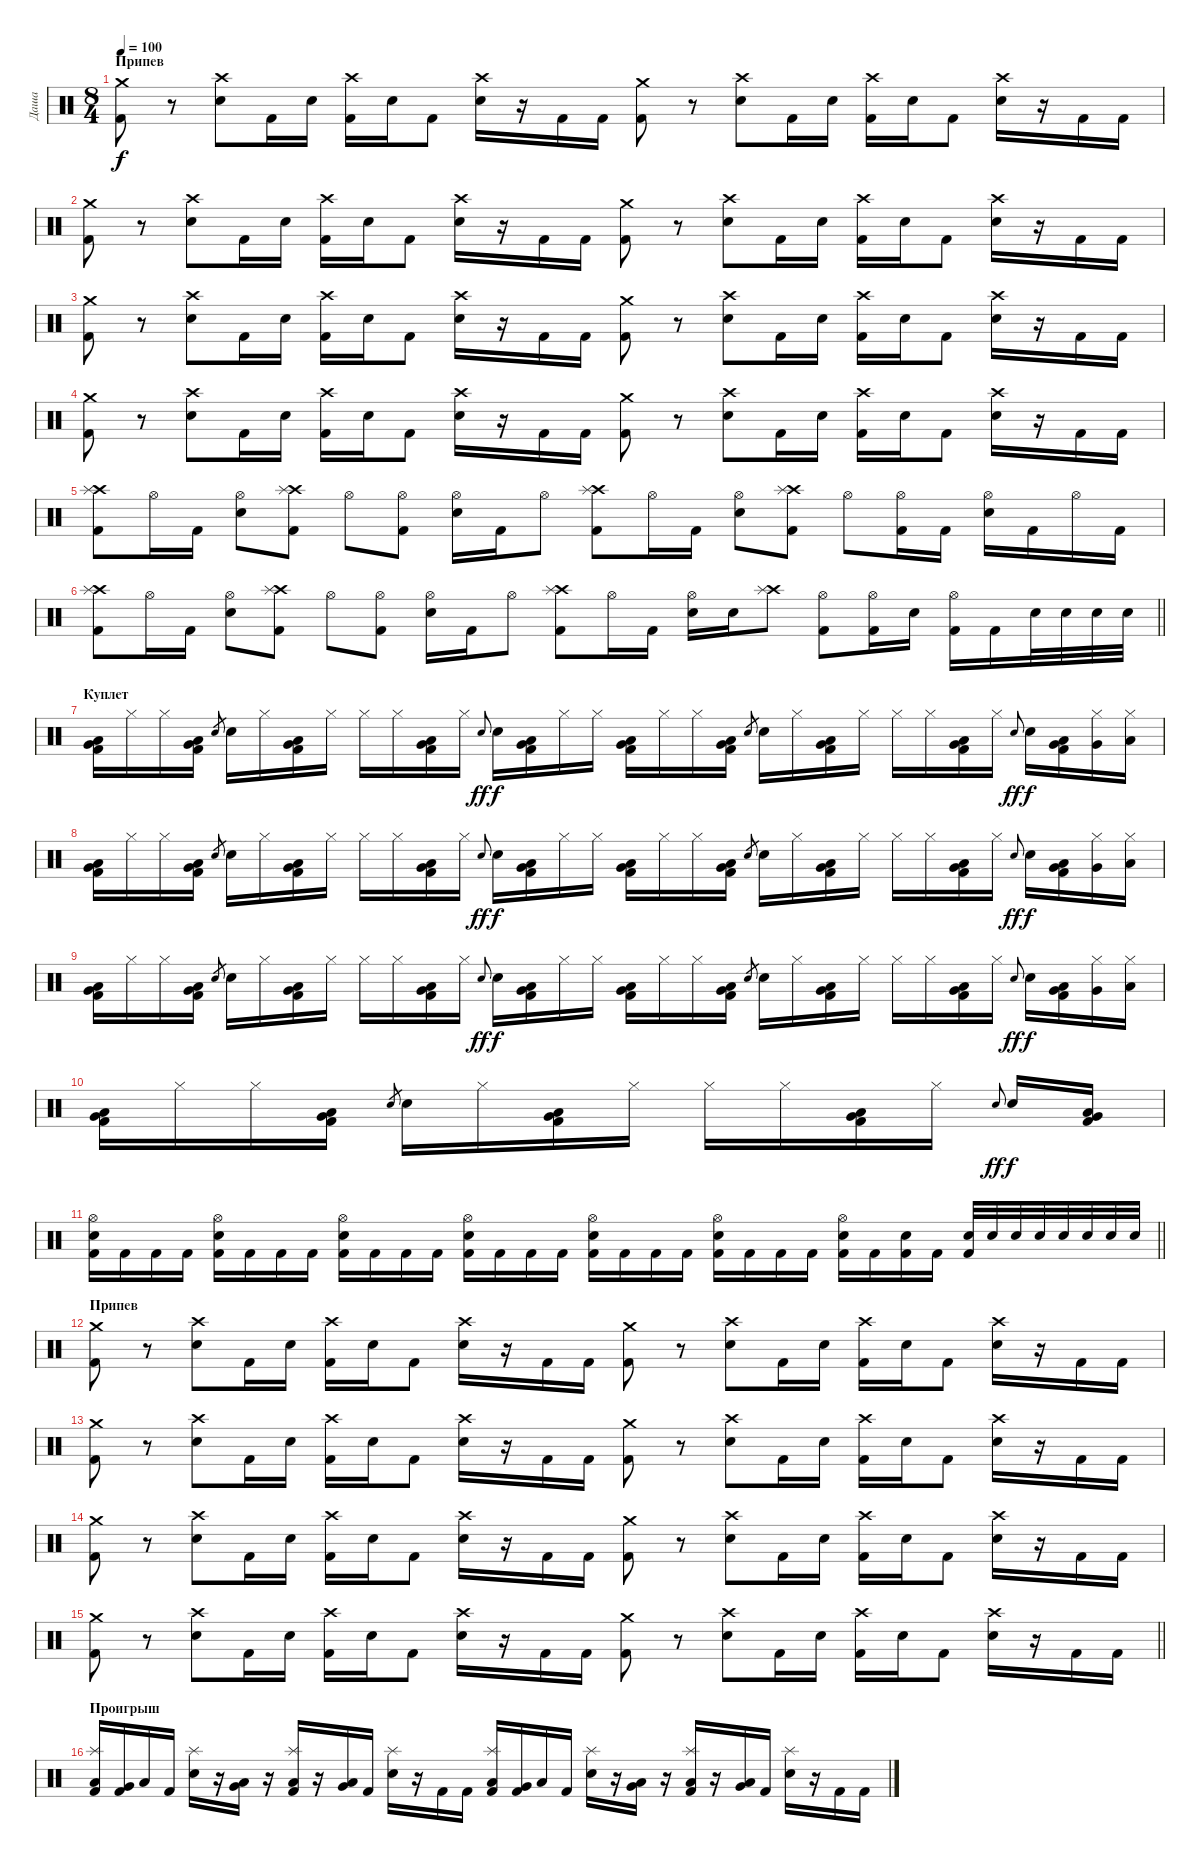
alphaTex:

\track ("Даша" "Даша") {instrument percussion}
\staff {score}
\articulation defaults
\ts (8 4)
\section ("" "Припев")
\tempo 100
\clef neutral
\ks c
("Crash medium (hit)" "Kick (hit) 2").8{dy f} r.8 ("Crash high (hit)" "Electric Snare (hit)").8 "Kick (hit) 2".16 "Electric Snare (hit)".16 ("Crash high (hit)" "Kick (hit) 2").16 "Electric Snare (hit)".16 "Kick (hit) 2".8 ("Crash high (hit)" "Electric Snare (hit)").16 r.16 "Kick (hit) 2".16 "Kick (hit) 2".16 ("Crash medium (hit)" "Kick (hit) 2").8 r.8 ("Crash high (hit)" "Electric Snare (hit)").8 "Kick (hit) 2".16 "Electric Snare (hit)".16 ("Crash high (hit)" "Kick (hit) 2").16 "Electric Snare (hit)".16 "Kick (hit) 2".8 ("Crash high (hit)" "Electric Snare (hit)").16 r.16 "Kick (hit) 2".16 "Kick (hit) 2".16 |
("Crash medium (hit)" "Kick (hit) 2").8 r.8 ("Crash high (hit)" "Electric Snare (hit)").8 "Kick (hit) 2".16 "Electric Snare (hit)".16 ("Crash high (hit)" "Kick (hit) 2").16 "Electric Snare (hit)".16 "Kick (hit) 2".8 ("Crash high (hit)" "Electric Snare (hit)").16 r.16 "Kick (hit) 2".16 "Kick (hit) 2".16 ("Crash medium (hit)" "Kick (hit) 2").8 r.8 ("Crash high (hit)" "Electric Snare (hit)").8 "Kick (hit) 2".16 "Electric Snare (hit)".16 ("Crash high (hit)" "Kick (hit) 2").16 "Electric Snare (hit)".16 "Kick (hit) 2".8 ("Crash high (hit)" "Electric Snare (hit)").16 r.16 "Kick (hit) 2".16 "Kick (hit) 2".16 |
("Crash medium (hit)" "Kick (hit) 2").8 r.8 ("Crash high (hit)" "Electric Snare (hit)").8 "Kick (hit) 2".16 "Electric Snare (hit)".16 ("Crash high (hit)" "Kick (hit) 2").16 "Electric Snare (hit)".16 "Kick (hit) 2".8 ("Crash high (hit)" "Electric Snare (hit)").16 r.16 "Kick (hit) 2".16 "Kick (hit) 2".16 ("Crash medium (hit)" "Kick (hit) 2").8 r.8 ("Crash high (hit)" "Electric Snare (hit)").8 "Kick (hit) 2".16 "Electric Snare (hit)".16 ("Crash high (hit)" "Kick (hit) 2").16 "Electric Snare (hit)".16 "Kick (hit) 2".8 ("Crash high (hit)" "Electric Snare (hit)").16 r.16 "Kick (hit) 2".16 "Kick (hit) 2".16 |
("Crash medium (hit)" "Kick (hit) 2").8 r.8 ("Crash high (hit)" "Electric Snare (hit)").8 "Kick (hit) 2".16 "Electric Snare (hit)".16 ("Crash high (hit)" "Kick (hit) 2").16 "Electric Snare (hit)".16 "Kick (hit) 2".8 ("Crash high (hit)" "Electric Snare (hit)").16 r.16 "Kick (hit) 2".16 "Kick (hit) 2".16 ("Crash medium (hit)" "Kick (hit) 2").8 r.8 ("Crash high (hit)" "Electric Snare (hit)").8 "Kick (hit) 2".16 "Electric Snare (hit)".16 ("Crash high (hit)" "Kick (hit) 2").16 "Electric Snare (hit)".16 "Kick (hit) 2".8 ("Crash high (hit)" "Electric Snare (hit)").16 r.16 "Kick (hit) 2".16 "Kick (hit) 2".16 |
("Crash high (hit)" "Splash (hit)" "Kick (hit) 2").8 "Hi-Hat (open)".16 "Kick (hit) 2".16 ("Hi-Hat (open)" "Electric Snare (hit)").8 ("Crash high (hit)" "Splash (hit)" "Kick (hit) 2").8 "Hi-Hat (open)".8 ("Hi-Hat (open)" "Kick (hit) 2").8 ("Hi-Hat (open)" "Electric Snare (hit)").16 "Kick (hit) 2".16 "Hi-Hat (open)".8 ("Crash high (hit)" "Splash (hit)" "Kick (hit) 2").8 "Hi-Hat (open)".16 "Kick (hit) 2".16 ("Hi-Hat (open)" "Electric Snare (hit)").8 ("Crash high (hit)" "Splash (hit)" "Kick (hit) 2").8 "Hi-Hat (open)".8 ("Hi-Hat (open)" "Kick (hit) 2").16 "Kick (hit) 2".16 ("Hi-Hat (open)" "Electric Snare (hit)").16 "Kick (hit) 2".16 "Hi-Hat (open)".16 "Kick (hit) 2".16 |
\barLineRight lightlight
("Crash high (hit)" "Splash (hit)" "Kick (hit) 2").8 "Hi-Hat (open)".16 "Kick (hit) 2".16 ("Hi-Hat (open)" "Electric Snare (hit)").8 ("Crash high (hit)" "Splash (hit)" "Kick (hit) 2").8 "Hi-Hat (open)".8 ("Hi-Hat (open)" "Kick (hit) 2").8 ("Hi-Hat (open)" "Electric Snare (hit)").16 "Kick (hit) 2".16 "Hi-Hat (open)".8 ("Crash high (hit)" "Splash (hit)" "Kick (hit) 2").8 "Hi-Hat (open)".16 "Kick (hit) 2".16 ("Hi-Hat (open)" "Electric Snare (hit)").16 "Electric Snare (hit)".16 ("Crash high (hit)" "Splash (hit)").8 ("Hi-Hat (open)" "Kick (hit) 2").8 ("Hi-Hat (open)" "Kick (hit) 2").16 "Electric Snare (hit)".16 ("Hi-Hat (open)" "Kick (hit) 2").16 "Kick (hit) 2".16 "Electric Snare (hit)".32 "Electric Snare (hit)".32 "Electric Snare (hit)".32 "Electric Snare (hit)".32 |
\section ("" "Куплет")
("Low Floor Tom (hit)" "Very Low Tom (hit)" "Kick (hit) 2").16 "Hi-Hat (closed)".16 "Hi-Hat (closed)".16 ("Low Floor Tom (hit)" "Very Low Tom (hit)" "Kick (hit) 2").16 "Electric Snare (hit)".8{gr} "Electric Snare (hit)".16 "Hi-Hat (closed)".16 ("Low Floor Tom (hit)" "Very Low Tom (hit)" "Kick (hit) 2").16 "Hi-Hat (closed)".16 "Hi-Hat (closed)".16 "Hi-Hat (closed)".16 ("Low Floor Tom (hit)" "Very Low Tom (hit)" "Kick (hit) 2").16 "Hi-Hat (closed)".16 "Electric Snare (hit)".8{gr onbeat dy ff} "Electric Snare (hit)".16{dy f} ("Low Floor Tom (hit)" "Very Low Tom (hit)" "Kick (hit) 2").16 "Hi-Hat (closed)".16 "Hi-Hat (closed)".16 ("Low Floor Tom (hit)" "Very Low Tom (hit)" "Kick (hit) 2").16 "Hi-Hat (closed)".16 "Hi-Hat (closed)".16 ("Low Floor Tom (hit)" "Very Low Tom (hit)" "Kick (hit) 2").16 "Electric Snare (hit)".8{gr} "Electric Snare (hit)".16 "Hi-Hat (closed)".16 ("Low Floor Tom (hit)" "Very Low Tom (hit)" "Kick (hit) 2").16 "Hi-Hat (closed)".16 "Hi-Hat (closed)".16 "Hi-Hat (closed)".16 ("Low Floor Tom (hit)" "Very Low Tom (hit)" "Kick (hit) 2").16 "Hi-Hat (closed)".16 "Electric Snare (hit)".8{gr onbeat dy ff} "Electric Snare (hit)".16{dy f} ("Low Tom (hit)" "Very Low Tom (hit)" "Kick (hit) 2").16 ("Hi-Hat (closed)" "Very Low Tom (hit)").16 ("Hi-Hat (closed)" "Low Floor Tom (hit)").16 |
("Low Floor Tom (hit)" "Very Low Tom (hit)" "Kick (hit) 2").16 "Hi-Hat (closed)".16 "Hi-Hat (closed)".16 ("Low Floor Tom (hit)" "Very Low Tom (hit)" "Kick (hit) 2").16 "Electric Snare (hit)".8{gr} "Electric Snare (hit)".16 "Hi-Hat (closed)".16 ("Low Floor Tom (hit)" "Very Low Tom (hit)" "Kick (hit) 2").16 "Hi-Hat (closed)".16 "Hi-Hat (closed)".16 "Hi-Hat (closed)".16 ("Low Floor Tom (hit)" "Very Low Tom (hit)" "Kick (hit) 2").16 "Hi-Hat (closed)".16 "Electric Snare (hit)".8{gr onbeat dy ff} "Electric Snare (hit)".16{dy f} ("Low Floor Tom (hit)" "Very Low Tom (hit)" "Kick (hit) 2").16 "Hi-Hat (closed)".16 "Hi-Hat (closed)".16 ("Low Floor Tom (hit)" "Very Low Tom (hit)" "Kick (hit) 2").16 "Hi-Hat (closed)".16 "Hi-Hat (closed)".16 ("Low Floor Tom (hit)" "Very Low Tom (hit)" "Kick (hit) 2").16 "Electric Snare (hit)".8{gr} "Electric Snare (hit)".16 "Hi-Hat (closed)".16 ("Low Floor Tom (hit)" "Very Low Tom (hit)" "Kick (hit) 2").16 "Hi-Hat (closed)".16 "Hi-Hat (closed)".16 "Hi-Hat (closed)".16 ("Low Floor Tom (hit)" "Very Low Tom (hit)" "Kick (hit) 2").16 "Hi-Hat (closed)".16 "Electric Snare (hit)".8{gr onbeat dy ff} "Electric Snare (hit)".16{dy f} ("Low Tom (hit)" "Very Low Tom (hit)" "Kick (hit) 2").16 ("Hi-Hat (closed)" "Very Low Tom (hit)").16 ("Hi-Hat (closed)" "Low Floor Tom (hit)").16 |
("Low Floor Tom (hit)" "Very Low Tom (hit)" "Kick (hit) 2").16 "Hi-Hat (closed)".16 "Hi-Hat (closed)".16 ("Low Floor Tom (hit)" "Very Low Tom (hit)" "Kick (hit) 2").16 "Electric Snare (hit)".8{gr} "Electric Snare (hit)".16 "Hi-Hat (closed)".16 ("Low Floor Tom (hit)" "Very Low Tom (hit)" "Kick (hit) 2").16 "Hi-Hat (closed)".16 "Hi-Hat (closed)".16 "Hi-Hat (closed)".16 ("Low Floor Tom (hit)" "Very Low Tom (hit)" "Kick (hit) 2").16 "Hi-Hat (closed)".16 "Electric Snare (hit)".8{gr onbeat dy ff} "Electric Snare (hit)".16{dy f} ("Low Floor Tom (hit)" "Very Low Tom (hit)" "Kick (hit) 2").16 "Hi-Hat (closed)".16 "Hi-Hat (closed)".16 ("Low Floor Tom (hit)" "Very Low Tom (hit)" "Kick (hit) 2").16 "Hi-Hat (closed)".16 "Hi-Hat (closed)".16 ("Low Floor Tom (hit)" "Very Low Tom (hit)" "Kick (hit) 2").16 "Electric Snare (hit)".8{gr} "Electric Snare (hit)".16 "Hi-Hat (closed)".16 ("Low Floor Tom (hit)" "Very Low Tom (hit)" "Kick (hit) 2").16 "Hi-Hat (closed)".16 "Hi-Hat (closed)".16 "Hi-Hat (closed)".16 ("Low Floor Tom (hit)" "Very Low Tom (hit)" "Kick (hit) 2").16 "Hi-Hat (closed)".16 "Electric Snare (hit)".8{gr onbeat dy ff} "Electric Snare (hit)".16{dy f} ("Low Tom (hit)" "Very Low Tom (hit)" "Kick (hit) 2").16 ("Hi-Hat (closed)" "Very Low Tom (hit)").16 ("Hi-Hat (closed)" "Low Floor Tom (hit)").16 |
("Low Floor Tom (hit)" "Very Low Tom (hit)" "Kick (hit) 2").16 "Hi-Hat (closed)".16 "Hi-Hat (closed)".16 ("Low Floor Tom (hit)" "Very Low Tom (hit)" "Kick (hit) 2").16 "Electric Snare (hit)".8{gr} "Electric Snare (hit)".16 "Hi-Hat (closed)".16 ("Low Floor Tom (hit)" "Very Low Tom (hit)" "Kick (hit) 2").16 "Hi-Hat (closed)".16 "Hi-Hat (closed)".16 "Hi-Hat (closed)".16 ("Low Floor Tom (hit)" "Very Low Tom (hit)" "Kick (hit) 2").16 "Hi-Hat (closed)".16 "Electric Snare (hit)".8{gr onbeat dy ff} "Electric Snare (hit)".16{dy f} ("Low Floor Tom (hit)" "Very Low Tom (hit)" "Kick (hit) 2").16 |
\barLineRight lightlight
("Hi-Hat (open)" "Electric Snare (hit)" "Kick (hit) 2").16 "Kick (hit) 2".16 "Kick (hit) 2".16 "Kick (hit) 2".16 ("Hi-Hat (open)" "Electric Snare (hit)" "Kick (hit) 2").16 "Kick (hit) 2".16 "Kick (hit) 2".16 "Kick (hit) 2".16 ("Hi-Hat (open)" "Electric Snare (hit)" "Kick (hit) 2").16 "Kick (hit) 2".16 "Kick (hit) 2".16 "Kick (hit) 2".16 ("Hi-Hat (open)" "Electric Snare (hit)" "Kick (hit) 2").16 "Kick (hit) 2".16 "Kick (hit) 2".16 "Kick (hit) 2".16 ("Hi-Hat (open)" "Electric Snare (hit)" "Kick (hit) 2").16 "Kick (hit) 2".16 "Kick (hit) 2".16 "Kick (hit) 2".16 ("Hi-Hat (open)" "Electric Snare (hit)" "Kick (hit) 2").16 "Kick (hit) 2".16 "Kick (hit) 2".16 "Kick (hit) 2".16 ("Hi-Hat (open)" "Electric Snare (hit)" "Kick (hit) 2").16 "Kick (hit) 2".16 ("Electric Snare (hit)" "Kick (hit) 2").16 "Kick (hit) 2".16 ("Electric Snare (hit)" "Kick (hit) 2").32 "Electric Snare (hit)".32 "Electric Snare (hit)".32 "Electric Snare (hit)".32 "Electric Snare (hit)".32 "Electric Snare (hit)".32 "Electric Snare (hit)".32 "Electric Snare (hit)".32 |
\section ("" "Припев")
("Crash medium (hit)" "Kick (hit) 2").8 r.8 ("Crash high (hit)" "Electric Snare (hit)").8 "Kick (hit) 2".16 "Electric Snare (hit)".16 ("Crash high (hit)" "Kick (hit) 2").16 "Electric Snare (hit)".16 "Kick (hit) 2".8 ("Crash high (hit)" "Electric Snare (hit)").16 r.16 "Kick (hit) 2".16 "Kick (hit) 2".16 ("Crash medium (hit)" "Kick (hit) 2").8 r.8 ("Crash high (hit)" "Electric Snare (hit)").8 "Kick (hit) 2".16 "Electric Snare (hit)".16 ("Crash high (hit)" "Kick (hit) 2").16 "Electric Snare (hit)".16 "Kick (hit) 2".8 ("Crash high (hit)" "Electric Snare (hit)").16 r.16 "Kick (hit) 2".16 "Kick (hit) 2".16 |
("Crash medium (hit)" "Kick (hit) 2").8 r.8 ("Crash high (hit)" "Electric Snare (hit)").8 "Kick (hit) 2".16 "Electric Snare (hit)".16 ("Crash high (hit)" "Kick (hit) 2").16 "Electric Snare (hit)".16 "Kick (hit) 2".8 ("Crash high (hit)" "Electric Snare (hit)").16 r.16 "Kick (hit) 2".16 "Kick (hit) 2".16 ("Crash medium (hit)" "Kick (hit) 2").8 r.8 ("Crash high (hit)" "Electric Snare (hit)").8 "Kick (hit) 2".16 "Electric Snare (hit)".16 ("Crash high (hit)" "Kick (hit) 2").16 "Electric Snare (hit)".16 "Kick (hit) 2".8 ("Crash high (hit)" "Electric Snare (hit)").16 r.16 "Kick (hit) 2".16 "Kick (hit) 2".16 |
("Crash medium (hit)" "Kick (hit) 2").8 r.8 ("Crash high (hit)" "Electric Snare (hit)").8 "Kick (hit) 2".16 "Electric Snare (hit)".16 ("Crash high (hit)" "Kick (hit) 2").16 "Electric Snare (hit)".16 "Kick (hit) 2".8 ("Crash high (hit)" "Electric Snare (hit)").16 r.16 "Kick (hit) 2".16 "Kick (hit) 2".16 ("Crash medium (hit)" "Kick (hit) 2").8 r.8 ("Crash high (hit)" "Electric Snare (hit)").8 "Kick (hit) 2".16 "Electric Snare (hit)".16 ("Crash high (hit)" "Kick (hit) 2").16 "Electric Snare (hit)".16 "Kick (hit) 2".8 ("Crash high (hit)" "Electric Snare (hit)").16 r.16 "Kick (hit) 2".16 "Kick (hit) 2".16 |
\barLineRight lightlight
("Crash medium (hit)" "Kick (hit) 2").8 r.8 ("Crash high (hit)" "Electric Snare (hit)").8 "Kick (hit) 2".16 "Electric Snare (hit)".16 ("Crash high (hit)" "Kick (hit) 2").16 "Electric Snare (hit)".16 "Kick (hit) 2".8 ("Crash high (hit)" "Electric Snare (hit)").16 r.16 "Kick (hit) 2".16 "Kick (hit) 2".16 ("Crash medium (hit)" "Kick (hit) 2").8 r.8 ("Crash high (hit)" "Electric Snare (hit)").8 "Kick (hit) 2".16 "Electric Snare (hit)".16 ("Crash high (hit)" "Kick (hit) 2").16 "Electric Snare (hit)".16 "Kick (hit) 2".8 ("Crash high (hit)" "Electric Snare (hit)").16 r.16 "Kick (hit) 2".16 "Kick (hit) 2".16 |
\section ("" "Проигрыш")
("Splash (hit)" "Low Tom (hit)" "Kick (hit) 2").16 ("Very Low Tom (hit)" "Kick (hit) 2").16 "Low Floor Tom (hit)".16 "Kick (hit) 2".16 ("Splash (hit)" "Electric Snare (hit)").16 r.16 ("Low Tom (hit)" "Very Low Tom (hit)").16 r.16 ("Splash (hit)" "Low Tom (hit)" "Kick (hit) 2").16 r.16 ("Very Low Tom (hit)" "Low Floor Tom (hit)").16 "Kick (hit) 2".16 ("Splash (hit)" "Electric Snare (hit)").16 r.16 "Kick (hit) 2".16 "Kick (hit) 2".16 ("Splash (hit)" "Low Tom (hit)" "Kick (hit) 2").16 ("Very Low Tom (hit)" "Kick (hit) 2").16 "Low Floor Tom (hit)".16 "Kick (hit) 2".16 ("Splash (hit)" "Electric Snare (hit)").16 r.16 ("Low Tom (hit)" "Very Low Tom (hit)").16 r.16 ("Splash (hit)" "Low Tom (hit)" "Kick (hit) 2").16 r.16 ("Very Low Tom (hit)" "Low Floor Tom (hit)").16 "Kick (hit) 2".16 ("Splash (hit)" "Electric Snare (hit)").16 r.16 "Kick (hit) 2".16 "Kick (hit) 2".16
